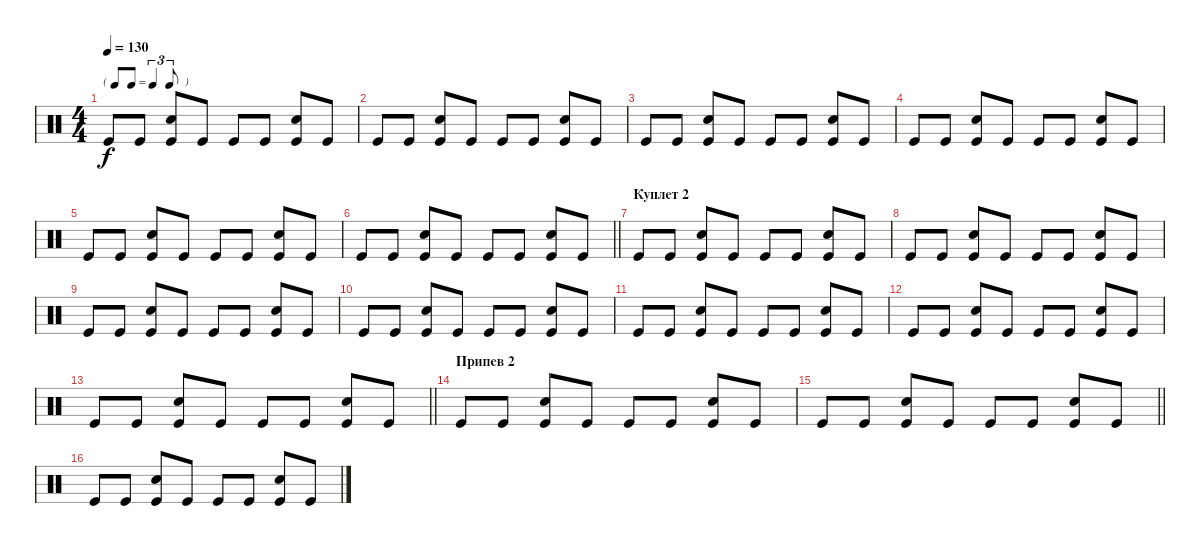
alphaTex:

\track "" {instrument percussion}
\staff {score}
\articulation defaults
\ts (4 4)
\tf triplet8th
\tempo 130
\clef neutral
\ks c "Kick (hit)".8{dy f} "Kick (hit)".8
("Snare (hit) 2" "Kick (hit)").8 "Kick (hit)".8 "Kick (hit)".8 "Kick (hit)".8 ("Snare (hit) 2" "Kick (hit)").8 "Kick (hit)".8 |
"Kick (hit)".8 "Kick (hit)".8 ("Snare (hit) 2" "Kick (hit)").8 "Kick (hit)".8 "Kick (hit)".8 "Kick (hit)".8 ("Snare (hit) 2" "Kick (hit)").8 "Kick (hit)".8 |
"Kick (hit)".8 "Kick (hit)".8 ("Snare (hit) 2" "Kick (hit)").8 "Kick (hit)".8 "Kick (hit)".8 "Kick (hit)".8 ("Snare (hit) 2" "Kick (hit)").8 "Kick (hit)".8 |
"Kick (hit)".8 "Kick (hit)".8 ("Snare (hit) 2" "Kick (hit)").8 "Kick (hit)".8 "Kick (hit)".8 "Kick (hit)".8 ("Snare (hit) 2" "Kick (hit)").8 "Kick (hit)".8 |
"Kick (hit)".8 "Kick (hit)".8 ("Snare (hit) 2" "Kick (hit)").8 "Kick (hit)".8 "Kick (hit)".8 "Kick (hit)".8 ("Snare (hit) 2" "Kick (hit)").8 "Kick (hit)".8 |
\barLineRight lightlight "Kick (hit)".8 "Kick (hit)".8
("Snare (hit) 2" "Kick (hit)").8 "Kick (hit)".8 "Kick (hit)".8 "Kick (hit)".8 ("Snare (hit) 2" "Kick (hit)").8 "Kick (hit)".8 |
\section ("" "Куплет 2")
"Kick (hit)".8 "Kick (hit)".8 ("Snare (hit) 2" "Kick (hit)").8 "Kick (hit)".8 "Kick (hit)".8 "Kick (hit)".8 ("Snare (hit) 2" "Kick (hit)").8 "Kick (hit)".8 |
"Kick (hit)".8 "Kick (hit)".8 ("Snare (hit) 2" "Kick (hit)").8 "Kick (hit)".8 "Kick (hit)".8 "Kick (hit)".8 ("Snare (hit) 2" "Kick (hit)").8 "Kick (hit)".8 |
"Kick (hit)".8 "Kick (hit)".8 ("Snare (hit) 2" "Kick (hit)").8 "Kick (hit)".8 "Kick (hit)".8 "Kick (hit)".8 ("Snare (hit) 2" "Kick (hit)").8 "Kick (hit)".8 |
"Kick (hit)".8 "Kick (hit)".8 ("Snare (hit) 2" "Kick (hit)").8 "Kick (hit)".8 "Kick (hit)".8 "Kick (hit)".8 ("Snare (hit) 2" "Kick (hit)").8 "Kick (hit)".8 |
"Kick (hit)".8 "Kick (hit)".8 ("Snare (hit) 2" "Kick (hit)").8 "Kick (hit)".8 "Kick (hit)".8 "Kick (hit)".8 ("Snare (hit) 2" "Kick (hit)").8 "Kick (hit)".8 |
"Kick (hit)".8 "Kick (hit)".8 ("Snare (hit) 2" "Kick (hit)").8 "Kick (hit)".8 "Kick (hit)".8 "Kick (hit)".8 ("Snare (hit) 2" "Kick (hit)").8 "Kick (hit)".8 |
\barLineRight lightlight "Kick (hit)".8 "Kick (hit)".8
("Snare (hit) 2" "Kick (hit)").8 "Kick (hit)".8 "Kick (hit)".8 "Kick (hit)".8 ("Snare (hit) 2" "Kick (hit)").8 "Kick (hit)".8 |
\section ("" "Припев 2")
"Kick (hit)".8 "Kick (hit)".8 ("Snare (hit) 2" "Kick (hit)").8 "Kick (hit)".8 "Kick (hit)".8 "Kick (hit)".8 ("Snare (hit) 2" "Kick (hit)").8 "Kick (hit)".8 |
\barLineRight lightlight "Kick (hit)".8 "Kick (hit)".8
("Snare (hit) 2" "Kick (hit)").8 "Kick (hit)".8 "Kick (hit)".8 "Kick (hit)".8 ("Snare (hit) 2" "Kick (hit)").8 "Kick (hit)".8 |
\section ("" "")
"Kick (hit)".8 "Kick (hit)".8 ("Snare (hit) 2" "Kick (hit)").8 "Kick (hit)".8 "Kick (hit)".8 "Kick (hit)".8 ("Snare (hit) 2" "Kick (hit)").8 "Kick (hit)".8
